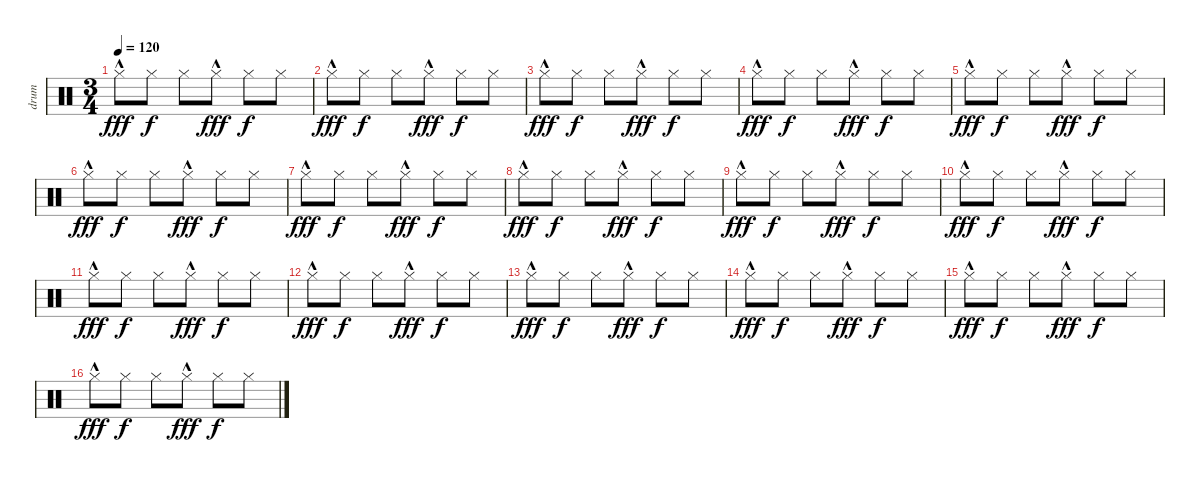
\track ("drum" "drum") {instrument percussion}
\staff {score}
\articulation defaults
\ts (3 4)
\tempo 120
\clef neutral
\ks c "Hi-Hat (closed)"{hac}.8{dy fff} "Hi-Hat (closed)".8{dy f} "Hi-Hat (closed)".8 "Hi-Hat (closed)"{hac}.8{dy fff} "Hi-Hat (closed)".8{dy f} "Hi-Hat (closed)".8
|
"Hi-Hat (closed)"{hac}.8{dy fff} "Hi-Hat (closed)".8{dy f} "Hi-Hat (closed)".8 "Hi-Hat (closed)"{hac}.8{dy fff} "Hi-Hat (closed)".8{dy f} "Hi-Hat (closed)".8 |
"Hi-Hat (closed)"{hac}.8{dy fff} "Hi-Hat (closed)".8{dy f} "Hi-Hat (closed)".8 "Hi-Hat (closed)"{hac}.8{dy fff} "Hi-Hat (closed)".8{dy f} "Hi-Hat (closed)".8 |
"Hi-Hat (closed)"{hac}.8{dy fff} "Hi-Hat (closed)".8{dy f} "Hi-Hat (closed)".8 "Hi-Hat (closed)"{hac}.8{dy fff} "Hi-Hat (closed)".8{dy f} "Hi-Hat (closed)".8 |
"Hi-Hat (closed)"{hac}.8{dy fff} "Hi-Hat (closed)".8{dy f} "Hi-Hat (closed)".8 "Hi-Hat (closed)"{hac}.8{dy fff} "Hi-Hat (closed)".8{dy f} "Hi-Hat (closed)".8 |
"Hi-Hat (closed)"{hac}.8{dy fff} "Hi-Hat (closed)".8{dy f} "Hi-Hat (closed)".8 "Hi-Hat (closed)"{hac}.8{dy fff} "Hi-Hat (closed)".8{dy f} "Hi-Hat (closed)".8 |
"Hi-Hat (closed)"{hac}.8{dy fff} "Hi-Hat (closed)".8{dy f} "Hi-Hat (closed)".8 "Hi-Hat (closed)"{hac}.8{dy fff} "Hi-Hat (closed)".8{dy f} "Hi-Hat (closed)".8 |
"Hi-Hat (closed)"{hac}.8{dy fff} "Hi-Hat (closed)".8{dy f} "Hi-Hat (closed)".8 "Hi-Hat (closed)"{hac}.8{dy fff} "Hi-Hat (closed)".8{dy f} "Hi-Hat (closed)".8 |
"Hi-Hat (closed)"{hac}.8{dy fff} "Hi-Hat (closed)".8{dy f} "Hi-Hat (closed)".8 "Hi-Hat (closed)"{hac}.8{dy fff} "Hi-Hat (closed)".8{dy f} "Hi-Hat (closed)".8 |
"Hi-Hat (closed)"{hac}.8{dy fff} "Hi-Hat (closed)".8{dy f} "Hi-Hat (closed)".8 "Hi-Hat (closed)"{hac}.8{dy fff} "Hi-Hat (closed)".8{dy f} "Hi-Hat (closed)".8 |
"Hi-Hat (closed)"{hac}.8{dy fff} "Hi-Hat (closed)".8{dy f} "Hi-Hat (closed)".8 "Hi-Hat (closed)"{hac}.8{dy fff} "Hi-Hat (closed)".8{dy f} "Hi-Hat (closed)".8 |
"Hi-Hat (closed)"{hac}.8{dy fff} "Hi-Hat (closed)".8{dy f} "Hi-Hat (closed)".8 "Hi-Hat (closed)"{hac}.8{dy fff} "Hi-Hat (closed)".8{dy f} "Hi-Hat (closed)".8 |
"Hi-Hat (closed)"{hac}.8{dy fff} "Hi-Hat (closed)".8{dy f} "Hi-Hat (closed)".8 "Hi-Hat (closed)"{hac}.8{dy fff} "Hi-Hat (closed)".8{dy f} "Hi-Hat (closed)".8 |
"Hi-Hat (closed)"{hac}.8{dy fff} "Hi-Hat (closed)".8{dy f} "Hi-Hat (closed)".8 "Hi-Hat (closed)"{hac}.8{dy fff} "Hi-Hat (closed)".8{dy f} "Hi-Hat (closed)".8 |
"Hi-Hat (closed)"{hac}.8{dy fff} "Hi-Hat (closed)".8{dy f} "Hi-Hat (closed)".8 "Hi-Hat (closed)"{hac}.8{dy fff} "Hi-Hat (closed)".8{dy f} "Hi-Hat (closed)".8 |
"Hi-Hat (closed)"{hac}.8{dy fff} "Hi-Hat (closed)".8{dy f} "Hi-Hat (closed)".8 "Hi-Hat (closed)"{hac}.8{dy fff} "Hi-Hat (closed)".8{dy f} "Hi-Hat (closed)".8
